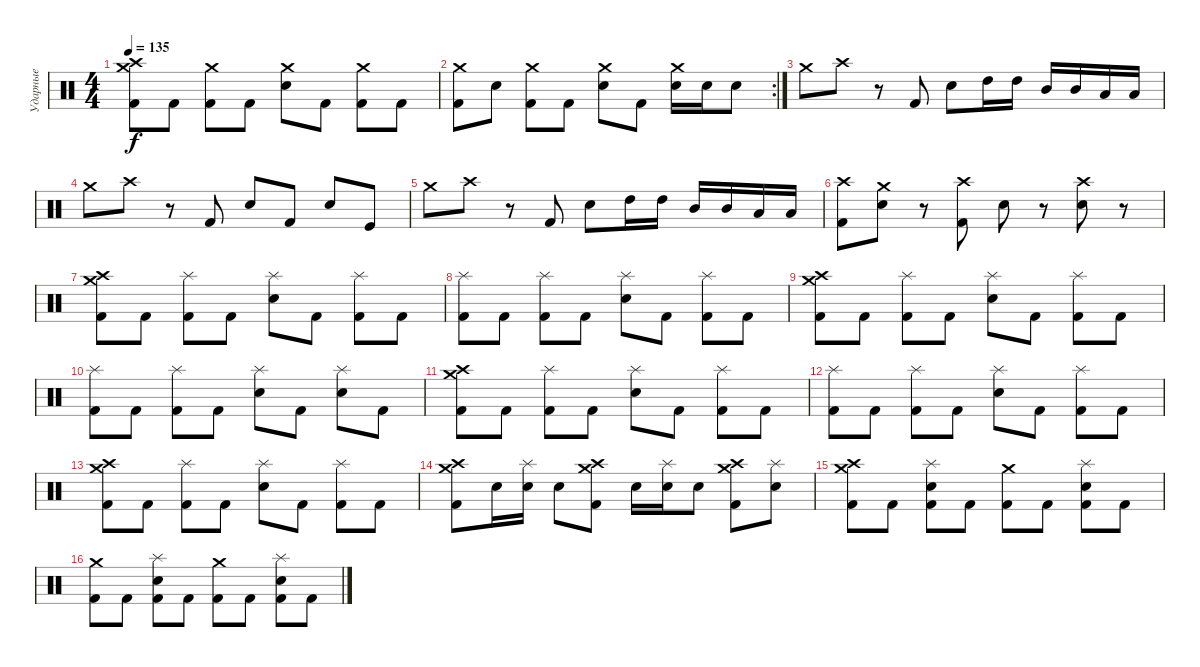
\track ("Ударные" "Ударные") {instrument percussion}
\staff {score}
\articulation defaults
\ts (4 4)
\tempo 135
\clef neutral
\ks c
("Kick (hit) 2" "Crash medium (hit)" "Crash high (hit)").8{dy f} "Kick (hit) 2".8 ("Kick (hit) 2" "Crash medium (hit)").8 "Kick (hit) 2".8 ("Electric Snare (hit)" "Crash medium (hit)").8 "Kick (hit) 2".8 ("Kick (hit) 2" "Crash medium (hit)").8 "Kick (hit) 2".8 |
\rc 2
("Kick (hit) 2" "Crash medium (hit)").8 "Electric Snare (hit)".8 ("Kick (hit) 2" "Crash medium (hit)").8 "Kick (hit) 2".8 ("Electric Snare (hit)" "Crash medium (hit)").8 "Kick (hit) 2".8 ("Electric Snare (hit)" "Crash medium (hit)").16 "Electric Snare (hit)".16 "Electric Snare (hit)".8 |
"Crash medium (hit)".8 "Crash high (hit)".8 r.8 "Kick (hit) 2".8 "Electric Snare (hit)".8 "High Tom (hit)".16 "High Tom (hit)".16 "Mid Tom (hit)".16 "Mid Tom (hit)".16 "Low Tom (hit)".16 "Low Tom (hit)".16 |
"Crash medium (hit)".8 "Crash high (hit)".8 r.8 "Kick (hit) 2".8 "Electric Snare (hit)".8 "Kick (hit) 2".8 "Electric Snare (hit)".8 "Kick (hit)".8 |
"Crash medium (hit)".8 "Crash high (hit)".8 r.8 "Kick (hit) 2".8 "Electric Snare (hit)".8 "High Tom (hit)".16 "High Tom (hit)".16 "Mid Tom (hit)".16 "Mid Tom (hit)".16 "Low Tom (hit)".16 "Low Tom (hit)".16 |
("Kick (hit) 2" "Crash high (hit)").8 ("Electric Snare (hit)" "Crash medium (hit)").8 r.8 ("Kick (hit) 2" "Crash high (hit)").8 "Electric Snare (hit)".8 r.8 ("Electric Snare (hit)" "Crash high (hit)").8 r.8 |
("Kick (hit) 2" "Crash medium (hit)" "Crash high (hit)").8 "Kick (hit) 2".8 ("Kick (hit) 2" "Splash (hit)").8 "Kick (hit) 2".8 ("Electric Snare (hit)" "Splash (hit)").8 "Kick (hit) 2".8 ("Kick (hit) 2" "Splash (hit)").8 "Kick (hit) 2".8 |
("Kick (hit) 2" "Splash (hit)").8 "Kick (hit) 2".8 ("Kick (hit) 2" "Splash (hit)").8 "Kick (hit) 2".8 ("Electric Snare (hit)" "Splash (hit)").8 "Kick (hit) 2".8 ("Kick (hit) 2" "Splash (hit)").8 "Kick (hit) 2".8 |
("Kick (hit) 2" "Crash medium (hit)" "Crash high (hit)").8 "Kick (hit) 2".8 ("Kick (hit) 2" "Splash (hit)").8 "Kick (hit) 2".8 ("Electric Snare (hit)" "Splash (hit)").8 "Kick (hit) 2".8 ("Kick (hit) 2" "Splash (hit)").8 "Kick (hit) 2".8 |
("Kick (hit) 2" "Splash (hit)").8 "Kick (hit) 2".8 ("Kick (hit) 2" "Splash (hit)").8 "Kick (hit) 2".8 ("Electric Snare (hit)" "Splash (hit)").8 "Kick (hit) 2".8 ("Electric Snare (hit)" "Splash (hit)").8 "Kick (hit) 2".8 |
("Kick (hit) 2" "Crash medium (hit)" "Crash high (hit)").8 "Kick (hit) 2".8 ("Kick (hit) 2" "Splash (hit)").8 "Kick (hit) 2".8 ("Electric Snare (hit)" "Splash (hit)").8 "Kick (hit) 2".8 ("Kick (hit) 2" "Splash (hit)").8 "Kick (hit) 2".8 |
("Kick (hit) 2" "Splash (hit)").8 "Kick (hit) 2".8 ("Kick (hit) 2" "Splash (hit)").8 "Kick (hit) 2".8 ("Electric Snare (hit)" "Splash (hit)").8 "Kick (hit) 2".8 ("Kick (hit) 2" "Splash (hit)").8 "Kick (hit) 2".8 |
("Kick (hit) 2" "Crash medium (hit)" "Crash high (hit)").8 "Kick (hit) 2".8 ("Kick (hit) 2" "Splash (hit)").8 "Kick (hit) 2".8 ("Electric Snare (hit)" "Splash (hit)").8 "Kick (hit) 2".8 ("Kick (hit) 2" "Splash (hit)").8 "Kick (hit) 2".8 |
("Kick (hit) 2" "Crash medium (hit)" "Crash high (hit)").8 "Electric Snare (hit)".16 ("Electric Snare (hit)" "Splash (hit)").16 "Electric Snare (hit)".8 ("Kick (hit) 2" "Crash medium (hit)" "Crash high (hit)").8 "Electric Snare (hit)".16 ("Electric Snare (hit)" "Splash (hit)").16 "Electric Snare (hit)".8 ("Kick (hit) 2" "Crash medium (hit)" "Crash high (hit)").8 ("Electric Snare (hit)" "Splash (hit)").8 |
("Kick (hit) 2" "Crash medium (hit)" "Crash high (hit)").8 "Kick (hit) 2".8 ("Kick (hit) 2" "Electric Snare (hit)" "Splash (hit)").8 "Kick (hit) 2".8 ("Kick (hit) 2" "Crash medium (hit)").8 "Kick (hit) 2".8 ("Kick (hit) 2" "Electric Snare (hit)" "Splash (hit)").8 "Kick (hit) 2".8 |
("Kick (hit) 2" "Crash medium (hit)").8 "Kick (hit) 2".8 ("Kick (hit) 2" "Electric Snare (hit)" "Splash (hit)").8 "Kick (hit) 2".8 ("Kick (hit) 2" "Crash medium (hit)").8 "Kick (hit) 2".8 ("Kick (hit) 2" "Electric Snare (hit)" "Splash (hit)").8 "Kick (hit) 2".8
